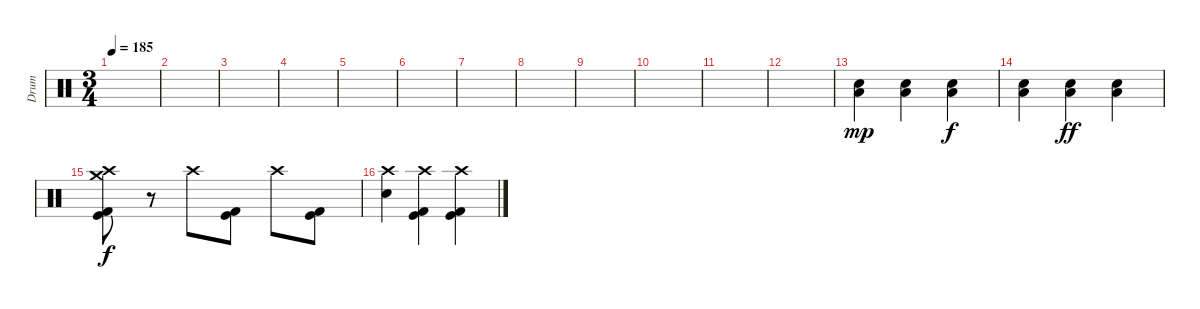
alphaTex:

\track ("Drum" "Drum") {instrument percussion}
\staff {score}
\articulation defaults
\ts (3 4)
\tempo 185
\clef neutral
\ks c
|
|
|
|
|
|
|
|
|
|
|
|
("Low Floor Tom (hit)" "Electric Snare (hit)").4{dy mp} ("Low Floor Tom (hit)" "Electric Snare (hit)").4 ("Low Floor Tom (hit)" "Electric Snare (hit)").4{dy f} |
("Low Floor Tom (hit)" "Electric Snare (hit)").4 ("Low Floor Tom (hit)" "Electric Snare (hit)").4{dy ff} ("Low Floor Tom (hit)" "Electric Snare (hit)").4 |
("Crash medium (hit)" "Crash high (hit)" "Kick (hit)" "Kick (hit) 2").8{dy f} r.8 "Crash high (hit)".8 ("Kick (hit)" "Kick (hit) 2").8 "Crash high (hit)".8 ("Kick (hit)" "Kick (hit) 2").8 |
("Crash high (hit)" "Electric Snare (hit)").4 ("Crash high (hit)" "Kick (hit)" "Kick (hit) 2").4 ("Crash high (hit)" "Kick (hit)" "Kick (hit) 2").4
